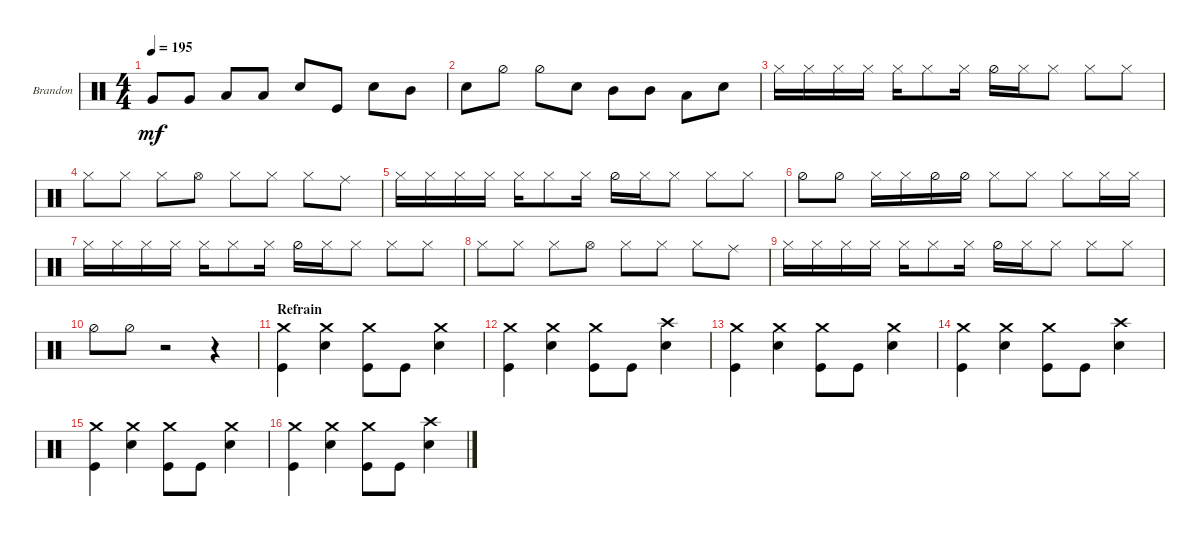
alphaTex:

\defaultSystemsLayout 4
\bracketExtendMode groupsimilarinstruments
\firstSystemTrackNameOrientation horizontal
\otherSystemsTrackNameOrientation horizontal
\track ("Drumkit" "Brandon") {instrument percussion}
\staff {score}
\articulation defaults
\ts (4 4)
\tempo 195
\clef neutral
\scale
0.333333
\ks c "Very Low Tom (hit)".8{dy mf} "Very Low Tom (hit)".8 "Low Tom (hit)".8 "Low Tom (hit)".8 "Snare (hit) 2".8 "Kick (hit)".8 "Snare (hit) 2".8 "Mid Tom (hit)".8
|
\scale
0.333333 "Snare (hit) 2".8 "Hi-Hat (half)".8 "Hi-Hat (half)".8 "Snare (hit) 2".8 "Mid Tom (hit)".8 "Mid Tom (hit)".8 "Low Tom (hit)".8 "Snare (hit) 2".8 |
\scale
0.333333 "Hi-Hat (closed)".16 "Hi-Hat (closed)".16 "Hi-Hat (closed)".16 "Hi-Hat (closed)".16 "Hi-Hat (closed)".16 "Hi-Hat (closed)".8 "Hi-Hat (closed)".16 "Hi-Hat (half)".16 "Hi-Hat (closed)".16 "Hi-Hat (closed)".8 "Hi-Hat (closed)".8 "Hi-Hat (closed)".8 |
\scale
0.333333 "Hi-Hat (closed)".8 "Hi-Hat (closed)".8 "Hi-Hat (closed)".8 "Hi-Hat (open)".8 "Hi-Hat (closed)".8 "Hi-Hat (closed)".8 "Hi-Hat (closed)".8 "Ride (middle)".8 |
\scale
0.333333 "Hi-Hat (closed)".16 "Hi-Hat (closed)".16 "Hi-Hat (closed)".16 "Hi-Hat (closed)".16 "Hi-Hat (closed)".16 "Hi-Hat (closed)".8 "Hi-Hat (closed)".16 "Hi-Hat (half)".16 "Hi-Hat (closed)".16 "Hi-Hat (closed)".8 "Hi-Hat (closed)".8 "Hi-Hat (closed)".8 |
\scale
0.333333 "Hi-Hat (half)".8 "Hi-Hat (half)".8 "Hi-Hat (closed)".16 "Hi-Hat (closed)".16 "Hi-Hat (half)".16 "Hi-Hat (half)".16 "Hi-Hat (closed)".8 "Hi-Hat (closed)".8 "Hi-Hat (closed)".8 "Hi-Hat (closed)".16 "Hi-Hat (closed)".16 |
\scale
0.333333 "Hi-Hat (closed)".16 "Hi-Hat (closed)".16 "Hi-Hat (closed)".16 "Hi-Hat (closed)".16 "Hi-Hat (closed)".16 "Hi-Hat (closed)".8 "Hi-Hat (closed)".16 "Hi-Hat (half)".16 "Hi-Hat (closed)".16 "Hi-Hat (closed)".8 "Hi-Hat (closed)".8 "Hi-Hat (closed)".8 |
\scale
0.333333 "Hi-Hat (closed)".8 "Hi-Hat (closed)".8 "Hi-Hat (closed)".8 "Hi-Hat (open)".8 "Hi-Hat (closed)".8 "Hi-Hat (closed)".8 "Hi-Hat (closed)".8 "Ride (middle)".8 |
\scale
0.333333 "Hi-Hat (closed)".16 "Hi-Hat (closed)".16 "Hi-Hat (closed)".16 "Hi-Hat (closed)".16 "Hi-Hat (closed)".16 "Hi-Hat (closed)".8 "Hi-Hat (closed)".16 "Hi-Hat (half)".16 "Hi-Hat (closed)".16 "Hi-Hat (closed)".8 "Hi-Hat (closed)".8 "Hi-Hat (closed)".8 |
\scale
0.333333 "Hi-Hat (half)".8 "Hi-Hat (half)".8 r.2 r.4 |
\section ("" "Refrain")
\scale
0.333333 ("Kick (hit)" "Crash medium (hit)").4 ("Snare (hit) 2" "Crash medium (hit)").4 ("Kick (hit)" "Crash medium (hit)").8 "Kick (hit)".8 ("Snare (hit) 2" "Crash medium (hit)").4 |
\scale
0.333333 ("Kick (hit)" "Crash medium (hit)").4 ("Snare (hit) 2" "Crash medium (hit)").4 ("Kick (hit)" "Crash medium (hit)").8 "Kick (hit)".8 ("Snare (hit) 2" "Crash high (hit)").4 |
\scale
0.333333 ("Kick (hit)" "Crash medium (hit)").4 ("Snare (hit) 2" "Crash medium (hit)").4 ("Kick (hit)" "Crash medium (hit)").8 "Kick (hit)".8 ("Snare (hit) 2" "Crash medium (hit)").4 |
\scale
0.333333 ("Kick (hit)" "Crash medium (hit)").4 ("Snare (hit) 2" "Crash medium (hit)").4 ("Kick (hit)" "Crash medium (hit)").8 "Kick (hit)".8 ("Snare (hit) 2" "Crash high (hit)").4 |
\scale
0.333333 ("Kick (hit)" "Crash medium (hit)").4 ("Snare (hit) 2" "Crash medium (hit)").4 ("Kick (hit)" "Crash medium (hit)").8 "Kick (hit)".8 ("Snare (hit) 2" "Crash medium (hit)").4 |
\scale
0.333333 ("Kick (hit)" "Crash medium (hit)").4 ("Snare (hit) 2" "Crash medium (hit)").4 ("Kick (hit)" "Crash medium (hit)").8 "Kick (hit)".8 ("Snare (hit) 2" "Crash high (hit)").4
